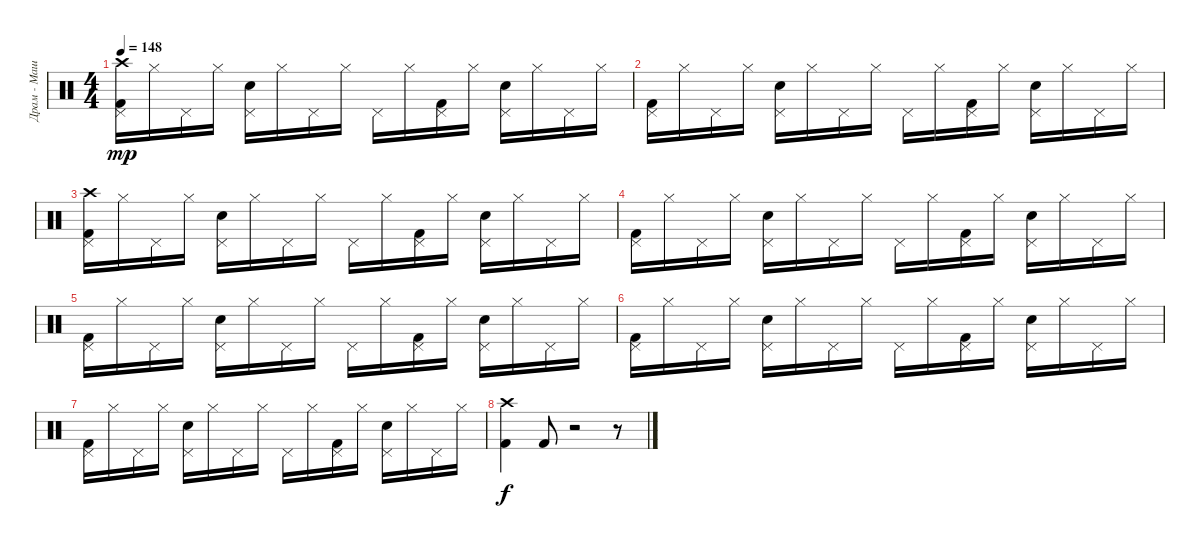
\track ("Драм - Машина 2" "Драм - Маш") {instrument percussion}
\staff {score}
\articulation defaults
\ts (4 4)
\tempo 148
\clef neutral
\ks c
("Crash high (hit)" "Kick (hit) 2" "Pedal Hi-Hat (hit)").16{dy mp} "Hi-Hat (closed)".16 "Pedal Hi-Hat (hit)".16 "Hi-Hat (closed)".16 ("Snare (hit) 2" "Pedal Hi-Hat (hit)").16 "Hi-Hat (closed)".16 "Pedal Hi-Hat (hit)".16 "Hi-Hat (closed)".16 "Pedal Hi-Hat (hit)".16 "Hi-Hat (closed)".16 ("Kick (hit) 2" "Pedal Hi-Hat (hit)").16 "Hi-Hat (closed)".16 ("Snare (hit) 2" "Pedal Hi-Hat (hit)").16 "Hi-Hat (closed)".16 "Pedal Hi-Hat (hit)".16 "Hi-Hat (closed)".16 |
("Kick (hit) 2" "Pedal Hi-Hat (hit)").16 "Hi-Hat (closed)".16 "Pedal Hi-Hat (hit)".16 "Hi-Hat (closed)".16 ("Snare (hit) 2" "Pedal Hi-Hat (hit)").16 "Hi-Hat (closed)".16 "Pedal Hi-Hat (hit)".16 "Hi-Hat (closed)".16 "Pedal Hi-Hat (hit)".16 "Hi-Hat (closed)".16 ("Kick (hit) 2" "Pedal Hi-Hat (hit)").16 "Hi-Hat (closed)".16 ("Snare (hit) 2" "Pedal Hi-Hat (hit)").16 "Hi-Hat (closed)".16 "Pedal Hi-Hat (hit)".16 "Hi-Hat (closed)".16 |
("Crash high (hit)" "Kick (hit) 2" "Pedal Hi-Hat (hit)").16 "Hi-Hat (closed)".16 "Pedal Hi-Hat (hit)".16 "Hi-Hat (closed)".16 ("Snare (hit) 2" "Pedal Hi-Hat (hit)").16 "Hi-Hat (closed)".16 "Pedal Hi-Hat (hit)".16 "Hi-Hat (closed)".16 "Pedal Hi-Hat (hit)".16 "Hi-Hat (closed)".16 ("Kick (hit) 2" "Pedal Hi-Hat (hit)").16 "Hi-Hat (closed)".16 ("Snare (hit) 2" "Pedal Hi-Hat (hit)").16 "Hi-Hat (closed)".16 "Pedal Hi-Hat (hit)".16 "Hi-Hat (closed)".16 |
("Kick (hit) 2" "Pedal Hi-Hat (hit)").16 "Hi-Hat (closed)".16 "Pedal Hi-Hat (hit)".16 "Hi-Hat (closed)".16 ("Snare (hit) 2" "Pedal Hi-Hat (hit)").16 "Hi-Hat (closed)".16 "Pedal Hi-Hat (hit)".16 "Hi-Hat (closed)".16 "Pedal Hi-Hat (hit)".16 "Hi-Hat (closed)".16 ("Kick (hit) 2" "Pedal Hi-Hat (hit)").16 "Hi-Hat (closed)".16 ("Snare (hit) 2" "Pedal Hi-Hat (hit)").16 "Hi-Hat (closed)".16 "Pedal Hi-Hat (hit)".16 "Hi-Hat (closed)".16 |
("Kick (hit) 2" "Pedal Hi-Hat (hit)").16 "Hi-Hat (closed)".16 "Pedal Hi-Hat (hit)".16 "Hi-Hat (closed)".16 ("Snare (hit) 2" "Pedal Hi-Hat (hit)").16 "Hi-Hat (closed)".16 "Pedal Hi-Hat (hit)".16 "Hi-Hat (closed)".16 "Pedal Hi-Hat (hit)".16 "Hi-Hat (closed)".16 ("Kick (hit) 2" "Pedal Hi-Hat (hit)").16 "Hi-Hat (closed)".16 ("Snare (hit) 2" "Pedal Hi-Hat (hit)").16 "Hi-Hat (closed)".16 "Pedal Hi-Hat (hit)".16 "Hi-Hat (closed)".16 |
("Kick (hit) 2" "Pedal Hi-Hat (hit)").16 "Hi-Hat (closed)".16 "Pedal Hi-Hat (hit)".16 "Hi-Hat (closed)".16 ("Snare (hit) 2" "Pedal Hi-Hat (hit)").16 "Hi-Hat (closed)".16 "Pedal Hi-Hat (hit)".16 "Hi-Hat (closed)".16 "Pedal Hi-Hat (hit)".16 "Hi-Hat (closed)".16 ("Kick (hit) 2" "Pedal Hi-Hat (hit)").16 "Hi-Hat (closed)".16 ("Snare (hit) 2" "Pedal Hi-Hat (hit)").16 "Hi-Hat (closed)".16 "Pedal Hi-Hat (hit)".16 "Hi-Hat (closed)".16 |
("Kick (hit) 2" "Pedal Hi-Hat (hit)").16 "Hi-Hat (closed)".16 "Pedal Hi-Hat (hit)".16 "Hi-Hat (closed)".16 ("Snare (hit) 2" "Pedal Hi-Hat (hit)").16 "Hi-Hat (closed)".16 "Pedal Hi-Hat (hit)".16 "Hi-Hat (closed)".16 "Pedal Hi-Hat (hit)".16 "Hi-Hat (closed)".16 ("Kick (hit) 2" "Pedal Hi-Hat (hit)").16 "Hi-Hat (closed)".16 ("Snare (hit) 2" "Pedal Hi-Hat (hit)").16 "Hi-Hat (closed)".16 "Pedal Hi-Hat (hit)".16 "Hi-Hat (closed)".16 |
("Crash high (hit)" "Kick (hit) 2").4{dy f} "Kick (hit) 2".8 r.2 r.8
